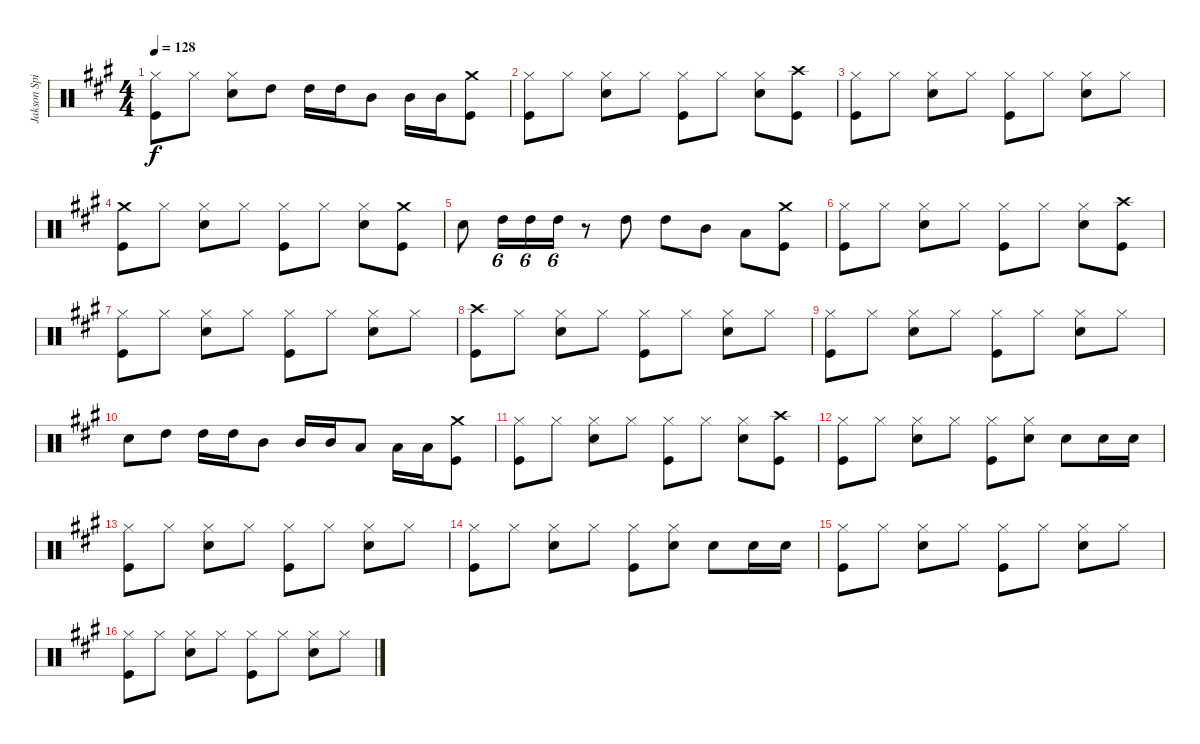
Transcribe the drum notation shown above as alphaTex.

\track ("Jakson Spires Drums" "Jakson Spi") {instrument percussion}
\staff {score}
\articulation defaults
\ts (4 4)
\tempo 128
\clef neutral
\ks a
("Hi-Hat (closed)" "Kick (hit)").8{dy f} "Hi-Hat (closed)".8 ("Hi-Hat (closed)" "Snare (hit) 2").8 "High Tom (hit)".8 "High Tom (hit)".16 "High Tom (hit)".16 "Mid Tom (hit)".8 "Mid Tom (hit)".16 "Mid Tom (hit)".16 ("Crash medium (hit)" "Kick (hit)").8 |
("Hi-Hat (closed)" "Kick (hit)").8 "Hi-Hat (closed)".8 ("Hi-Hat (closed)" "Snare (hit) 2").8 "Hi-Hat (closed)".8 ("Hi-Hat (closed)" "Kick (hit)").8 "Hi-Hat (closed)".8 ("Hi-Hat (closed)" "Snare (hit) 2").8 ("Crash high (hit)" "Kick (hit)").8 |
("Hi-Hat (closed)" "Kick (hit)").8 "Hi-Hat (closed)".8 ("Hi-Hat (closed)" "Snare (hit) 2").8 "Hi-Hat (closed)".8 ("Hi-Hat (closed)" "Kick (hit)").8 "Hi-Hat (closed)".8 ("Hi-Hat (closed)" "Snare (hit) 2").8 "Hi-Hat (closed)".8 |
("Crash medium (hit)" "Kick (hit)").8 "Hi-Hat (closed)".8 ("Hi-Hat (closed)" "Snare (hit) 2").8 "Hi-Hat (closed)".8 ("Hi-Hat (closed)" "Kick (hit)").8 "Hi-Hat (closed)".8 ("Hi-Hat (closed)" "Snare (hit) 2").8 ("Crash medium (hit)" "Kick (hit)").8 |
"Snare (hit) 2".8 "High Tom (hit)".16{tu (6 4)} "High Tom (hit)".16{tu (6 4)} "High Tom (hit)".16{tu (6 4)} r.8 "High Tom (hit)".8 "High Tom (hit)".8 "Mid Tom (hit)".8 "Low Tom (hit)".8 ("Crash medium (hit)" "Kick (hit)").8 |
("Hi-Hat (closed)" "Kick (hit)").8 "Hi-Hat (closed)".8 ("Hi-Hat (closed)" "Snare (hit) 2").8 "Hi-Hat (closed)".8 ("Hi-Hat (closed)" "Kick (hit)").8 "Hi-Hat (closed)".8 ("Hi-Hat (closed)" "Snare (hit) 2").8 ("Crash high (hit)" "Kick (hit)").8 |
("Hi-Hat (closed)" "Kick (hit)").8 "Hi-Hat (closed)".8 ("Hi-Hat (closed)" "Snare (hit) 2").8 "Hi-Hat (closed)".8 ("Hi-Hat (closed)" "Kick (hit)").8 "Hi-Hat (closed)".8 ("Hi-Hat (closed)" "Snare (hit) 2").8 "Hi-Hat (closed)".8 |
("Crash high (hit)" "Kick (hit)").8 "Hi-Hat (closed)".8 ("Hi-Hat (closed)" "Snare (hit) 2").8 "Hi-Hat (closed)".8 ("Hi-Hat (closed)" "Kick (hit)").8 "Hi-Hat (closed)".8 ("Hi-Hat (closed)" "Snare (hit) 2").8 "Hi-Hat (closed)".8 |
("Hi-Hat (closed)" "Kick (hit)").8 "Hi-Hat (closed)".8 ("Hi-Hat (closed)" "Snare (hit) 2").8 "Hi-Hat (closed)".8 ("Hi-Hat (closed)" "Kick (hit)").8 "Hi-Hat (closed)".8 ("Hi-Hat (closed)" "Snare (hit) 2").8 "Hi-Hat (closed)".8 |
"Snare (hit) 2".8 "High Tom (hit)".8 "High Tom (hit)".16 "High Tom (hit)".16 "Mid Tom (hit)".8 "Mid Tom (hit)".16 "Mid Tom (hit)".16 "Low Tom (hit)".8 "Low Tom (hit)".16 "Low Tom (hit)".16 ("Crash medium (hit)" "Kick (hit)").8 |
("Hi-Hat (closed)" "Kick (hit)").8 "Hi-Hat (closed)".8 ("Hi-Hat (closed)" "Snare (hit) 2").8 "Hi-Hat (closed)".8 ("Hi-Hat (closed)" "Kick (hit)").8 "Hi-Hat (closed)".8 ("Hi-Hat (closed)" "Snare (hit) 2").8 ("Crash high (hit)" "Kick (hit)").8 |
("Hi-Hat (closed)" "Kick (hit)").8 "Hi-Hat (closed)".8 ("Hi-Hat (closed)" "Snare (hit) 2").8 "Hi-Hat (closed)".8 ("Hi-Hat (closed)" "Kick (hit)").8 ("Hi-Hat (closed)" "Snare (hit) 2").8 "Snare (hit) 2".8 "Snare (hit) 2".16 "Snare (hit) 2".16 |
("Hi-Hat (closed)" "Kick (hit)").8 "Hi-Hat (closed)".8 ("Hi-Hat (closed)" "Snare (hit) 2").8 "Hi-Hat (closed)".8 ("Hi-Hat (closed)" "Kick (hit)").8 "Hi-Hat (closed)".8 ("Hi-Hat (closed)" "Snare (hit) 2").8 "Hi-Hat (closed)".8 |
("Hi-Hat (closed)" "Kick (hit)").8 "Hi-Hat (closed)".8 ("Hi-Hat (closed)" "Snare (hit) 2").8 "Hi-Hat (closed)".8 ("Hi-Hat (closed)" "Kick (hit)").8 ("Hi-Hat (closed)" "Snare (hit) 2").8 "Snare (hit) 2".8 "Snare (hit) 2".16 "Snare (hit) 2".16 |
("Hi-Hat (closed)" "Kick (hit)").8 "Hi-Hat (closed)".8 ("Hi-Hat (closed)" "Snare (hit) 2").8 "Hi-Hat (closed)".8 ("Hi-Hat (closed)" "Kick (hit)").8 "Hi-Hat (closed)".8 ("Hi-Hat (closed)" "Snare (hit) 2").8 "Hi-Hat (closed)".8 |
("Hi-Hat (closed)" "Kick (hit)").8 "Hi-Hat (closed)".8 ("Hi-Hat (closed)" "Snare (hit) 2").8 "Hi-Hat (closed)".8 ("Hi-Hat (closed)" "Kick (hit)").8 "Hi-Hat (closed)".8 ("Hi-Hat (closed)" "Snare (hit) 2").8 "Hi-Hat (closed)".8
